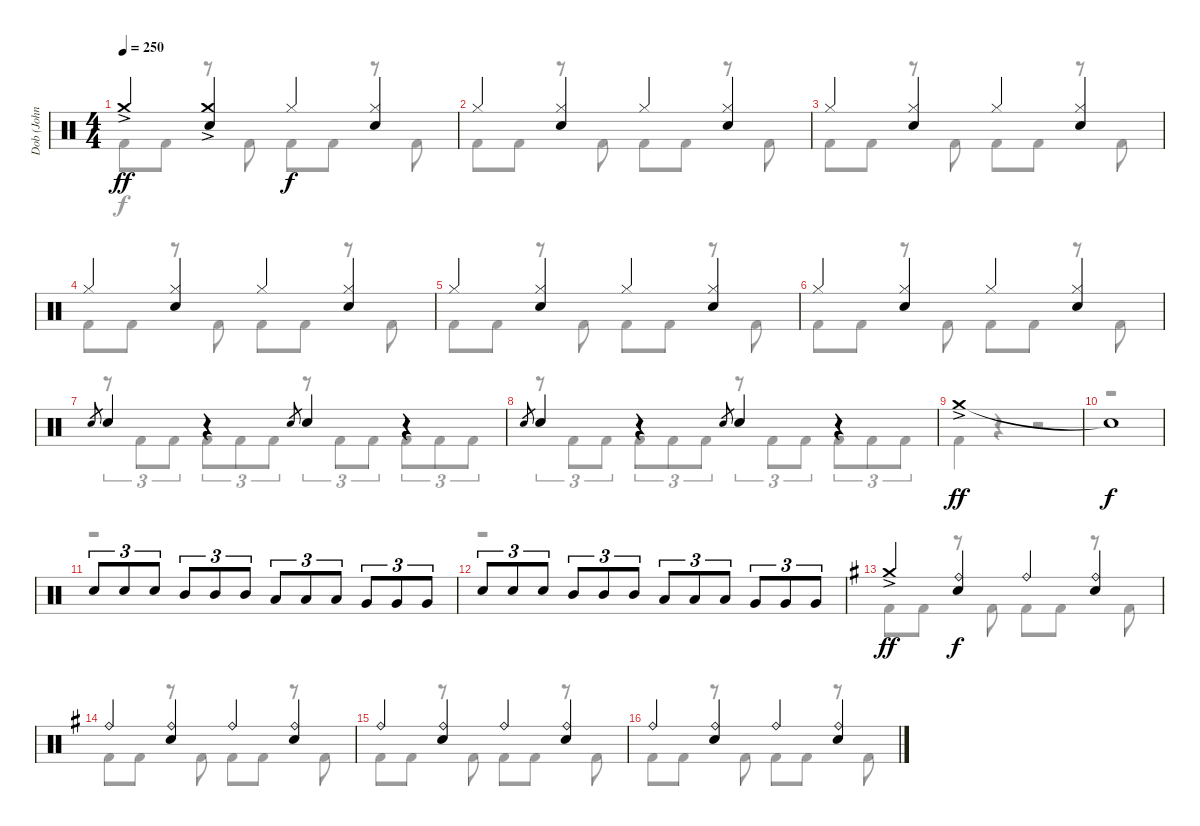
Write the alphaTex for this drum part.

\track ("Dob (John Macaluso)" "Dob (John ") {instrument percussion}
\staff {score}
\articulation defaults
\voice
\ts (4 4)
\tempo 250
\clef neutral
\ks c "Crash medium (hit)"{ac}.4{dy ff}
("Crash medium (hit)"{ac} "Electric Snare (hit)").4 "Hi-Hat (closed)".4{dy f} ("Hi-Hat (closed)" "Electric Snare (hit)").4 |
"Hi-Hat (closed)".4 ("Hi-Hat (closed)" "Electric Snare (hit)").4 "Hi-Hat (closed)".4 ("Hi-Hat (closed)" "Electric Snare (hit)").4 |
"Hi-Hat (closed)".4 ("Hi-Hat (closed)" "Electric Snare (hit)").4 "Hi-Hat (closed)".4 ("Hi-Hat (closed)" "Electric Snare (hit)").4 |
"Hi-Hat (closed)".4 ("Hi-Hat (closed)" "Electric Snare (hit)").4 "Hi-Hat (closed)".4 ("Hi-Hat (closed)" "Electric Snare (hit)").4 |
"Hi-Hat (closed)".4 ("Hi-Hat (closed)" "Electric Snare (hit)").4 "Hi-Hat (closed)".4 ("Hi-Hat (closed)" "Electric Snare (hit)").4 |
"Hi-Hat (closed)".4 ("Hi-Hat (closed)" "Electric Snare (hit)").4 "Hi-Hat (closed)".4 ("Hi-Hat (closed)" "Electric Snare (hit)").4 |
"Electric Snare (hit)".8{gr} "Electric Snare (hit)".4 r.4 "Electric Snare (hit)".8{gr} "Electric Snare (hit)".4 r.4 |
"Electric Snare (hit)".8{gr} "Electric Snare (hit)".4 r.4 "Electric Snare (hit)".8{gr} "Electric Snare (hit)".4 r.4 |
"Crash medium (hit)"{ac}.1{dy ff} |
"Snare (hit)"{t}.1{dy f} |
"Electric Snare (hit)".8{tu (3 2)} "Electric Snare (hit)".8{tu (3 2)} "Electric Snare (hit)".8{tu (3 2)} "Mid Tom (hit)".8{tu (3 2)} "Mid Tom (hit)".8{tu (3 2)} "Mid Tom (hit)".8{tu (3 2)} "Low Tom (hit)".8{tu (3 2)} "Low Tom (hit)".8{tu (3 2)} "Low Tom (hit)".8{tu (3 2)} "Very Low Tom (hit)".8{tu (3 2)} "Very Low Tom (hit)".8{tu (3 2)} "Very Low Tom (hit)".8{tu (3 2)} |
"Electric Snare (hit)".8{tu (3 2)} "Electric Snare (hit)".8{tu (3 2)} "Electric Snare (hit)".8{tu (3 2)} "Mid Tom (hit)".8{tu (3 2)} "Mid Tom (hit)".8{tu (3 2)} "Mid Tom (hit)".8{tu (3 2)} "Low Tom (hit)".8{tu (3 2)} "Low Tom (hit)".8{tu (3 2)} "Low Tom (hit)".8{tu (3 2)} "Very Low Tom (hit)".8{tu (3 2)} "Very Low Tom (hit)".8{tu (3 2)} "Very Low Tom (hit)".8{tu (3 2)} |
\ks g "Crash medium (hit)"{ac}.4{dy ff}
("Ride (bell)" "Electric Snare (hit)").4{dy f} "Ride (bell)".4 ("Ride (bell)" "Electric Snare (hit)").4 |
"Ride (bell)".4 ("Ride (bell)" "Electric Snare (hit)").4 "Ride (bell)".4 ("Ride (bell)" "Electric Snare (hit)").4 |
"Ride (bell)".4 ("Ride (bell)" "Electric Snare (hit)").4 "Ride (bell)".4 ("Ride (bell)" "Electric Snare (hit)").4 |
"Ride (bell)".4 ("Ride (bell)" "Electric Snare (hit)").4 "Ride (bell)".4 ("Ride (bell)" "Electric Snare (hit)").4
\voice
\clef neutral
\ottava regular
\simile none
\ks c "Kick (hit) 2".8{dy f} "Kick (hit) 2".8
r.8 "Kick (hit) 2".8 "Kick (hit) 2".8 "Kick (hit) 2".8 r.8 "Kick (hit) 2".8 |
"Kick (hit) 2".8 "Kick (hit) 2".8 r.8 "Kick (hit) 2".8 "Kick (hit) 2".8 "Kick (hit) 2".8 r.8 "Kick (hit) 2".8 |
"Kick (hit) 2".8 "Kick (hit) 2".8 r.8 "Kick (hit) 2".8 "Kick (hit) 2".8 "Kick (hit) 2".8 r.8 "Kick (hit) 2".8 |
"Kick (hit) 2".8 "Kick (hit) 2".8 r.8 "Kick (hit) 2".8 "Kick (hit) 2".8 "Kick (hit) 2".8 r.8 "Kick (hit) 2".8 |
"Kick (hit) 2".8 "Kick (hit) 2".8 r.8 "Kick (hit) 2".8 "Kick (hit) 2".8 "Kick (hit) 2".8 r.8 "Kick (hit) 2".8 |
"Kick (hit) 2".8 "Kick (hit) 2".8 r.8 "Kick (hit) 2".8 "Kick (hit) 2".8 "Kick (hit) 2".8 r.8 "Kick (hit) 2".8 |
r.8{tu (3 2)} "Kick (hit) 2".8{tu (3 2)} "Kick (hit) 2".8{tu (3 2)} "Kick (hit) 2".8{tu (3 2)} "Kick (hit) 2".8{tu (3 2)} "Kick (hit) 2".8{tu (3 2)} r.8{tu (3 2)} "Kick (hit) 2".8{tu (3 2)} "Kick (hit) 2".8{tu (3 2)} "Kick (hit) 2".8{tu (3 2)} "Kick (hit) 2".8{tu (3 2)} "Kick (hit) 2".8{tu (3 2)} |
r.8{tu (3 2)} "Kick (hit) 2".8{tu (3 2)} "Kick (hit) 2".8{tu (3 2)} "Kick (hit) 2".8{tu (3 2)} "Kick (hit) 2".8{tu (3 2)} "Kick (hit) 2".8{tu (3 2)} r.8{tu (3 2)} "Kick (hit) 2".8{tu (3 2)} "Kick (hit) 2".8{tu (3 2)} "Kick (hit) 2".8{tu (3 2)} "Kick (hit) 2".8{tu (3 2)} "Kick (hit) 2".8{tu (3 2)} |
"Kick (hit) 2".4 r.4 r.2 |
r.1 |
r.1 |
r.1 |
\ks g "Kick (hit) 2".8 "Kick (hit) 2".8
r.8 "Kick (hit) 2".8 "Kick (hit) 2".8 "Kick (hit) 2".8 r.8 "Kick (hit) 2".8 |
"Kick (hit) 2".8 "Kick (hit) 2".8 r.8 "Kick (hit) 2".8 "Kick (hit) 2".8 "Kick (hit) 2".8 r.8 "Kick (hit) 2".8 |
"Kick (hit) 2".8 "Kick (hit) 2".8 r.8 "Kick (hit) 2".8 "Kick (hit) 2".8 "Kick (hit) 2".8 r.8 "Kick (hit) 2".8 |
"Kick (hit) 2".8 "Kick (hit) 2".8 r.8 "Kick (hit) 2".8 "Kick (hit) 2".8 "Kick (hit) 2".8 r.8 "Kick (hit) 2".8
